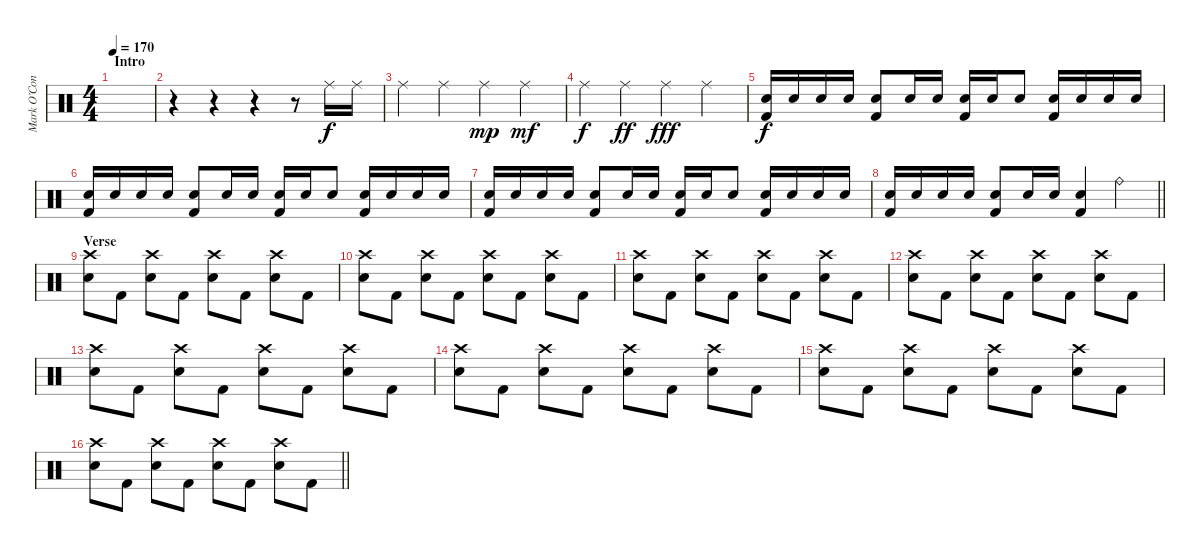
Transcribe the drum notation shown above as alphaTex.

\track ("Mark O’Connell - Drums" "Mark O’Con") {instrument percussion}
\staff {score}
\articulation defaults
\ts (4 4)
\section ("" "Intro")
\tempo 170
\clef neutral
\ks c
|
r.4 r.4 r.4 r.8 "Ride (middle)".16 "Ride (middle)".16 |
"Ride (middle)".4 "Ride (middle)".4 "Ride (middle)".4{dy mp} "Ride (middle)".4{dy mf} |
"Ride (middle)".4{dy f} "Ride (middle)".4{dy ff} "Ride (middle)".4{dy fff} "Ride (middle)".4 |
("Snare (hit) 2" "Kick (hit) 2").16{dy f} "Snare (hit) 2".16 "Snare (hit) 2".16 "Snare (hit) 2".16 ("Snare (hit) 2" "Kick (hit) 2").8 "Snare (hit) 2".16 "Snare (hit) 2".16 ("Snare (hit) 2" "Kick (hit) 2").16 "Snare (hit) 2".16 "Snare (hit) 2".8 ("Snare (hit) 2" "Kick (hit) 2").16 "Snare (hit) 2".16 "Snare (hit) 2".16 "Snare (hit) 2".16 |
("Snare (hit) 2" "Kick (hit) 2").16 "Snare (hit) 2".16 "Snare (hit) 2".16 "Snare (hit) 2".16 ("Snare (hit) 2" "Kick (hit) 2").8 "Snare (hit) 2".16 "Snare (hit) 2".16 ("Snare (hit) 2" "Kick (hit) 2").16 "Snare (hit) 2".16 "Snare (hit) 2".8 ("Snare (hit) 2" "Kick (hit) 2").16 "Snare (hit) 2".16 "Snare (hit) 2".16 "Snare (hit) 2".16 |
("Snare (hit) 2" "Kick (hit) 2").16 "Snare (hit) 2".16 "Snare (hit) 2".16 "Snare (hit) 2".16 ("Snare (hit) 2" "Kick (hit) 2").8 "Snare (hit) 2".16 "Snare (hit) 2".16 ("Snare (hit) 2" "Kick (hit) 2").16 "Snare (hit) 2".16 "Snare (hit) 2".8 ("Snare (hit) 2" "Kick (hit) 2").16 "Snare (hit) 2".16 "Snare (hit) 2".16 "Snare (hit) 2".16 |
\barLineRight lightlight
("Snare (hit) 2" "Kick (hit) 2").16 "Snare (hit) 2".16 "Snare (hit) 2".16 "Snare (hit) 2".16 ("Snare (hit) 2" "Kick (hit) 2").8 "Snare (hit) 2".16 "Snare (hit) 2".16 ("Snare (hit) 2" "Kick (hit) 2").4 "Ride (bell)".4 |
\section ("" "Verse")
("Crash high (hit)" "Snare (hit) 2").8 "Kick (hit) 2".8 ("Crash high (hit)" "Snare (hit) 2").8 "Kick (hit) 2".8 ("Crash high (hit)" "Snare (hit) 2").8 "Kick (hit) 2".8 ("Crash high (hit)" "Snare (hit) 2").8 "Kick (hit) 2".8 |
("Crash high (hit)" "Snare (hit) 2").8 "Kick (hit) 2".8 ("Crash high (hit)" "Snare (hit) 2").8 "Kick (hit) 2".8 ("Crash high (hit)" "Snare (hit) 2").8 "Kick (hit) 2".8 ("Crash high (hit)" "Snare (hit) 2").8 "Kick (hit) 2".8 |
("Crash high (hit)" "Snare (hit) 2").8 "Kick (hit) 2".8 ("Crash high (hit)" "Snare (hit) 2").8 "Kick (hit) 2".8 ("Crash high (hit)" "Snare (hit) 2").8 "Kick (hit) 2".8 ("Crash high (hit)" "Snare (hit) 2").8 "Kick (hit) 2".8 |
("Crash high (hit)" "Snare (hit) 2").8 "Kick (hit) 2".8 ("Crash high (hit)" "Snare (hit) 2").8 "Kick (hit) 2".8 ("Crash high (hit)" "Snare (hit) 2").8 "Kick (hit) 2".8 ("Crash high (hit)" "Snare (hit) 2").8 "Kick (hit) 2".8 |
("Crash high (hit)" "Snare (hit) 2").8 "Kick (hit) 2".8 ("Crash high (hit)" "Snare (hit) 2").8 "Kick (hit) 2".8 ("Crash high (hit)" "Snare (hit) 2").8 "Kick (hit) 2".8 ("Crash high (hit)" "Snare (hit) 2").8 "Kick (hit) 2".8 |
("Crash high (hit)" "Snare (hit) 2").8 "Kick (hit) 2".8 ("Crash high (hit)" "Snare (hit) 2").8 "Kick (hit) 2".8 ("Crash high (hit)" "Snare (hit) 2").8 "Kick (hit) 2".8 ("Crash high (hit)" "Snare (hit) 2").8 "Kick (hit) 2".8 |
("Crash high (hit)" "Snare (hit) 2").8 "Kick (hit) 2".8 ("Crash high (hit)" "Snare (hit) 2").8 "Kick (hit) 2".8 ("Crash high (hit)" "Snare (hit) 2").8 "Kick (hit) 2".8 ("Crash high (hit)" "Snare (hit) 2").8 "Kick (hit) 2".8 |
\barLineRight lightlight
("Crash high (hit)" "Snare (hit) 2").8 "Kick (hit) 2".8 ("Crash high (hit)" "Snare (hit) 2").8 "Kick (hit) 2".8 ("Crash high (hit)" "Snare (hit) 2").8 "Kick (hit) 2".8 ("Crash high (hit)" "Snare (hit) 2").8 "Kick (hit) 2".8
